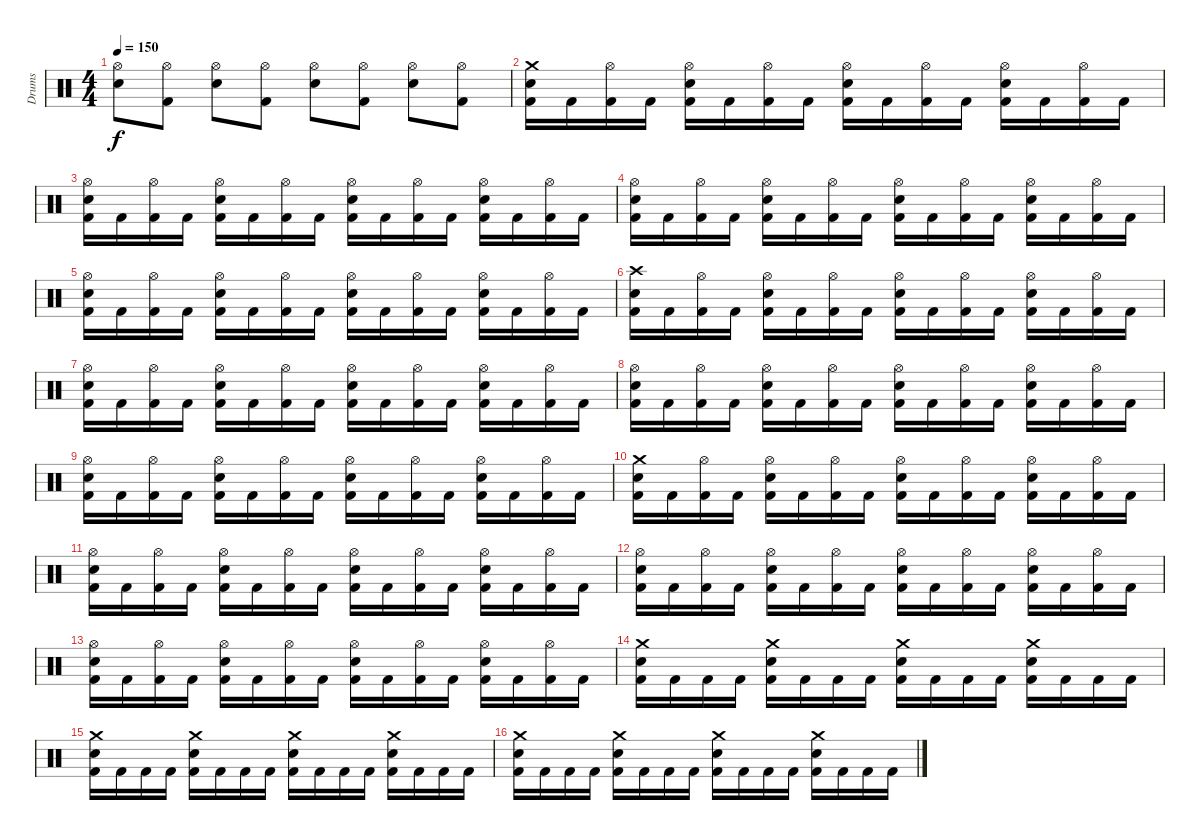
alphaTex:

\track ("Drums" "Drums") {instrument percussion}
\staff {score}
\articulation defaults
\ts (4 4)
\tempo 150
\clef neutral
\ks c
("Electric Snare (hit)" "Hi-Hat (open)").8{dy f} ("Kick (hit) 2" "Hi-Hat (open)").8 ("Electric Snare (hit)" "Hi-Hat (open)").8 ("Kick (hit) 2" "Hi-Hat (open)").8 ("Electric Snare (hit)" "Hi-Hat (open)").8 ("Kick (hit) 2" "Hi-Hat (open)").8 ("Electric Snare (hit)" "Hi-Hat (open)").8 ("Kick (hit) 2" "Hi-Hat (open)").8 |
("Kick (hit) 2" "Electric Snare (hit)" "Crash medium (hit)").16 "Kick (hit) 2".16 ("Kick (hit) 2" "Hi-Hat (open)").16 "Kick (hit) 2".16 ("Kick (hit) 2" "Electric Snare (hit)" "Hi-Hat (open)").16 "Kick (hit) 2".16 ("Kick (hit) 2" "Hi-Hat (open)").16 "Kick (hit) 2".16 ("Kick (hit) 2" "Electric Snare (hit)" "Hi-Hat (open)").16 "Kick (hit) 2".16 ("Kick (hit) 2" "Hi-Hat (open)").16 "Kick (hit) 2".16 ("Kick (hit) 2" "Electric Snare (hit)" "Hi-Hat (open)").16 "Kick (hit) 2".16 ("Kick (hit) 2" "Hi-Hat (open)").16 "Kick (hit) 2".16 |
("Kick (hit) 2" "Electric Snare (hit)" "Hi-Hat (open)").16 "Kick (hit) 2".16 ("Kick (hit) 2" "Hi-Hat (open)").16 "Kick (hit) 2".16 ("Kick (hit) 2" "Electric Snare (hit)" "Hi-Hat (open)").16 "Kick (hit) 2".16 ("Kick (hit) 2" "Hi-Hat (open)").16 "Kick (hit) 2".16 ("Kick (hit) 2" "Electric Snare (hit)" "Hi-Hat (open)").16 "Kick (hit) 2".16 ("Kick (hit) 2" "Hi-Hat (open)").16 "Kick (hit) 2".16 ("Kick (hit) 2" "Electric Snare (hit)" "Hi-Hat (open)").16 "Kick (hit) 2".16 ("Kick (hit) 2" "Hi-Hat (open)").16 "Kick (hit) 2".16 |
("Kick (hit) 2" "Electric Snare (hit)" "Hi-Hat (open)").16 "Kick (hit) 2".16 ("Kick (hit) 2" "Hi-Hat (open)").16 "Kick (hit) 2".16 ("Kick (hit) 2" "Electric Snare (hit)" "Hi-Hat (open)").16 "Kick (hit) 2".16 ("Kick (hit) 2" "Hi-Hat (open)").16 "Kick (hit) 2".16 ("Kick (hit) 2" "Electric Snare (hit)" "Hi-Hat (open)").16 "Kick (hit) 2".16 ("Kick (hit) 2" "Hi-Hat (open)").16 "Kick (hit) 2".16 ("Kick (hit) 2" "Electric Snare (hit)" "Hi-Hat (open)").16 "Kick (hit) 2".16 ("Kick (hit) 2" "Hi-Hat (open)").16 "Kick (hit) 2".16 |
("Kick (hit) 2" "Electric Snare (hit)" "Hi-Hat (open)").16 "Kick (hit) 2".16 ("Kick (hit) 2" "Hi-Hat (open)").16 "Kick (hit) 2".16 ("Kick (hit) 2" "Electric Snare (hit)" "Hi-Hat (open)").16 "Kick (hit) 2".16 ("Kick (hit) 2" "Hi-Hat (open)").16 "Kick (hit) 2".16 ("Kick (hit) 2" "Electric Snare (hit)" "Hi-Hat (open)").16 "Kick (hit) 2".16 ("Kick (hit) 2" "Hi-Hat (open)").16 "Kick (hit) 2".16 ("Kick (hit) 2" "Electric Snare (hit)" "Hi-Hat (open)").16 "Kick (hit) 2".16 ("Kick (hit) 2" "Hi-Hat (open)").16 "Kick (hit) 2".16 |
("Kick (hit) 2" "Electric Snare (hit)" "Crash high (hit)").16 "Kick (hit) 2".16 ("Kick (hit) 2" "Hi-Hat (open)").16 "Kick (hit) 2".16 ("Kick (hit) 2" "Electric Snare (hit)" "Hi-Hat (open)").16 "Kick (hit) 2".16 ("Kick (hit) 2" "Hi-Hat (open)").16 "Kick (hit) 2".16 ("Kick (hit) 2" "Electric Snare (hit)" "Hi-Hat (open)").16 "Kick (hit) 2".16 ("Kick (hit) 2" "Hi-Hat (open)").16 "Kick (hit) 2".16 ("Kick (hit) 2" "Electric Snare (hit)" "Hi-Hat (open)").16 "Kick (hit) 2".16 ("Kick (hit) 2" "Hi-Hat (open)").16 "Kick (hit) 2".16 |
("Kick (hit) 2" "Electric Snare (hit)" "Hi-Hat (open)").16 "Kick (hit) 2".16 ("Kick (hit) 2" "Hi-Hat (open)").16 "Kick (hit) 2".16 ("Kick (hit) 2" "Electric Snare (hit)" "Hi-Hat (open)").16 "Kick (hit) 2".16 ("Kick (hit) 2" "Hi-Hat (open)").16 "Kick (hit) 2".16 ("Kick (hit) 2" "Electric Snare (hit)" "Hi-Hat (open)").16 "Kick (hit) 2".16 ("Kick (hit) 2" "Hi-Hat (open)").16 "Kick (hit) 2".16 ("Kick (hit) 2" "Electric Snare (hit)" "Hi-Hat (open)").16 "Kick (hit) 2".16 ("Kick (hit) 2" "Hi-Hat (open)").16 "Kick (hit) 2".16 |
("Kick (hit) 2" "Electric Snare (hit)" "Hi-Hat (open)").16 "Kick (hit) 2".16 ("Kick (hit) 2" "Hi-Hat (open)").16 "Kick (hit) 2".16 ("Kick (hit) 2" "Electric Snare (hit)" "Hi-Hat (open)").16 "Kick (hit) 2".16 ("Kick (hit) 2" "Hi-Hat (open)").16 "Kick (hit) 2".16 ("Kick (hit) 2" "Electric Snare (hit)" "Hi-Hat (open)").16 "Kick (hit) 2".16 ("Kick (hit) 2" "Hi-Hat (open)").16 "Kick (hit) 2".16 ("Kick (hit) 2" "Electric Snare (hit)" "Hi-Hat (open)").16 "Kick (hit) 2".16 ("Kick (hit) 2" "Hi-Hat (open)").16 "Kick (hit) 2".16 |
("Kick (hit) 2" "Electric Snare (hit)" "Hi-Hat (open)").16 "Kick (hit) 2".16 ("Kick (hit) 2" "Hi-Hat (open)").16 "Kick (hit) 2".16 ("Kick (hit) 2" "Electric Snare (hit)" "Hi-Hat (open)").16 "Kick (hit) 2".16 ("Kick (hit) 2" "Hi-Hat (open)").16 "Kick (hit) 2".16 ("Kick (hit) 2" "Electric Snare (hit)" "Hi-Hat (open)").16 "Kick (hit) 2".16 ("Kick (hit) 2" "Hi-Hat (open)").16 "Kick (hit) 2".16 ("Kick (hit) 2" "Electric Snare (hit)" "Hi-Hat (open)").16 "Kick (hit) 2".16 ("Kick (hit) 2" "Hi-Hat (open)").16 "Kick (hit) 2".16 |
("Kick (hit) 2" "Electric Snare (hit)" "Crash medium (hit)").16 "Kick (hit) 2".16 ("Kick (hit) 2" "Hi-Hat (open)").16 "Kick (hit) 2".16 ("Kick (hit) 2" "Electric Snare (hit)" "Hi-Hat (open)").16 "Kick (hit) 2".16 ("Kick (hit) 2" "Hi-Hat (open)").16 "Kick (hit) 2".16 ("Kick (hit) 2" "Electric Snare (hit)" "Hi-Hat (open)").16 "Kick (hit) 2".16 ("Kick (hit) 2" "Hi-Hat (open)").16 "Kick (hit) 2".16 ("Kick (hit) 2" "Electric Snare (hit)" "Hi-Hat (open)").16 "Kick (hit) 2".16 ("Kick (hit) 2" "Hi-Hat (open)").16 "Kick (hit) 2".16 |
("Kick (hit) 2" "Electric Snare (hit)" "Hi-Hat (open)").16 "Kick (hit) 2".16 ("Kick (hit) 2" "Hi-Hat (open)").16 "Kick (hit) 2".16 ("Kick (hit) 2" "Electric Snare (hit)" "Hi-Hat (open)").16 "Kick (hit) 2".16 ("Kick (hit) 2" "Hi-Hat (open)").16 "Kick (hit) 2".16 ("Kick (hit) 2" "Electric Snare (hit)" "Hi-Hat (open)").16 "Kick (hit) 2".16 ("Kick (hit) 2" "Hi-Hat (open)").16 "Kick (hit) 2".16 ("Kick (hit) 2" "Electric Snare (hit)" "Hi-Hat (open)").16 "Kick (hit) 2".16 ("Kick (hit) 2" "Hi-Hat (open)").16 "Kick (hit) 2".16 |
("Kick (hit) 2" "Electric Snare (hit)" "Hi-Hat (open)").16 "Kick (hit) 2".16 ("Kick (hit) 2" "Hi-Hat (open)").16 "Kick (hit) 2".16 ("Kick (hit) 2" "Electric Snare (hit)" "Hi-Hat (open)").16 "Kick (hit) 2".16 ("Kick (hit) 2" "Hi-Hat (open)").16 "Kick (hit) 2".16 ("Kick (hit) 2" "Electric Snare (hit)" "Hi-Hat (open)").16 "Kick (hit) 2".16 ("Kick (hit) 2" "Hi-Hat (open)").16 "Kick (hit) 2".16 ("Kick (hit) 2" "Electric Snare (hit)" "Hi-Hat (open)").16 "Kick (hit) 2".16 ("Kick (hit) 2" "Hi-Hat (open)").16 "Kick (hit) 2".16 |
("Kick (hit) 2" "Electric Snare (hit)" "Hi-Hat (open)").16 "Kick (hit) 2".16 ("Kick (hit) 2" "Hi-Hat (open)").16 "Kick (hit) 2".16 ("Kick (hit) 2" "Electric Snare (hit)" "Hi-Hat (open)").16 "Kick (hit) 2".16 ("Kick (hit) 2" "Hi-Hat (open)").16 "Kick (hit) 2".16 ("Kick (hit) 2" "Electric Snare (hit)" "Hi-Hat (open)").16 "Kick (hit) 2".16 ("Kick (hit) 2" "Hi-Hat (open)").16 "Kick (hit) 2".16 ("Kick (hit) 2" "Electric Snare (hit)" "Hi-Hat (open)").16 "Kick (hit) 2".16 ("Kick (hit) 2" "Hi-Hat (open)").16 "Kick (hit) 2".16 |
("Kick (hit) 2" "Electric Snare (hit)" "Crash medium (hit)").16 "Kick (hit) 2".16 "Kick (hit) 2".16 "Kick (hit) 2".16 ("Kick (hit) 2" "Electric Snare (hit)" "Crash medium (hit)").16 "Kick (hit) 2".16 "Kick (hit) 2".16 "Kick (hit) 2".16 ("Kick (hit) 2" "Electric Snare (hit)" "Crash medium (hit)").16 "Kick (hit) 2".16 "Kick (hit) 2".16 "Kick (hit) 2".16 ("Kick (hit) 2" "Electric Snare (hit)" "Crash medium (hit)").16 "Kick (hit) 2".16 "Kick (hit) 2".16 "Kick (hit) 2".16 |
("Kick (hit) 2" "Electric Snare (hit)" "Crash medium (hit)").16 "Kick (hit) 2".16 "Kick (hit) 2".16 "Kick (hit) 2".16 ("Kick (hit) 2" "Electric Snare (hit)" "Crash medium (hit)").16 "Kick (hit) 2".16 "Kick (hit) 2".16 "Kick (hit) 2".16 ("Kick (hit) 2" "Electric Snare (hit)" "Crash medium (hit)").16 "Kick (hit) 2".16 "Kick (hit) 2".16 "Kick (hit) 2".16 ("Kick (hit) 2" "Electric Snare (hit)" "Crash medium (hit)").16 "Kick (hit) 2".16 "Kick (hit) 2".16 "Kick (hit) 2".16 |
("Kick (hit) 2" "Electric Snare (hit)" "Crash medium (hit)").16 "Kick (hit) 2".16 "Kick (hit) 2".16 "Kick (hit) 2".16 ("Kick (hit) 2" "Electric Snare (hit)" "Crash medium (hit)").16 "Kick (hit) 2".16 "Kick (hit) 2".16 "Kick (hit) 2".16 ("Kick (hit) 2" "Electric Snare (hit)" "Crash medium (hit)").16 "Kick (hit) 2".16 "Kick (hit) 2".16 "Kick (hit) 2".16 ("Kick (hit) 2" "Electric Snare (hit)" "Crash medium (hit)").16 "Kick (hit) 2".16 "Kick (hit) 2".16 "Kick (hit) 2".16
